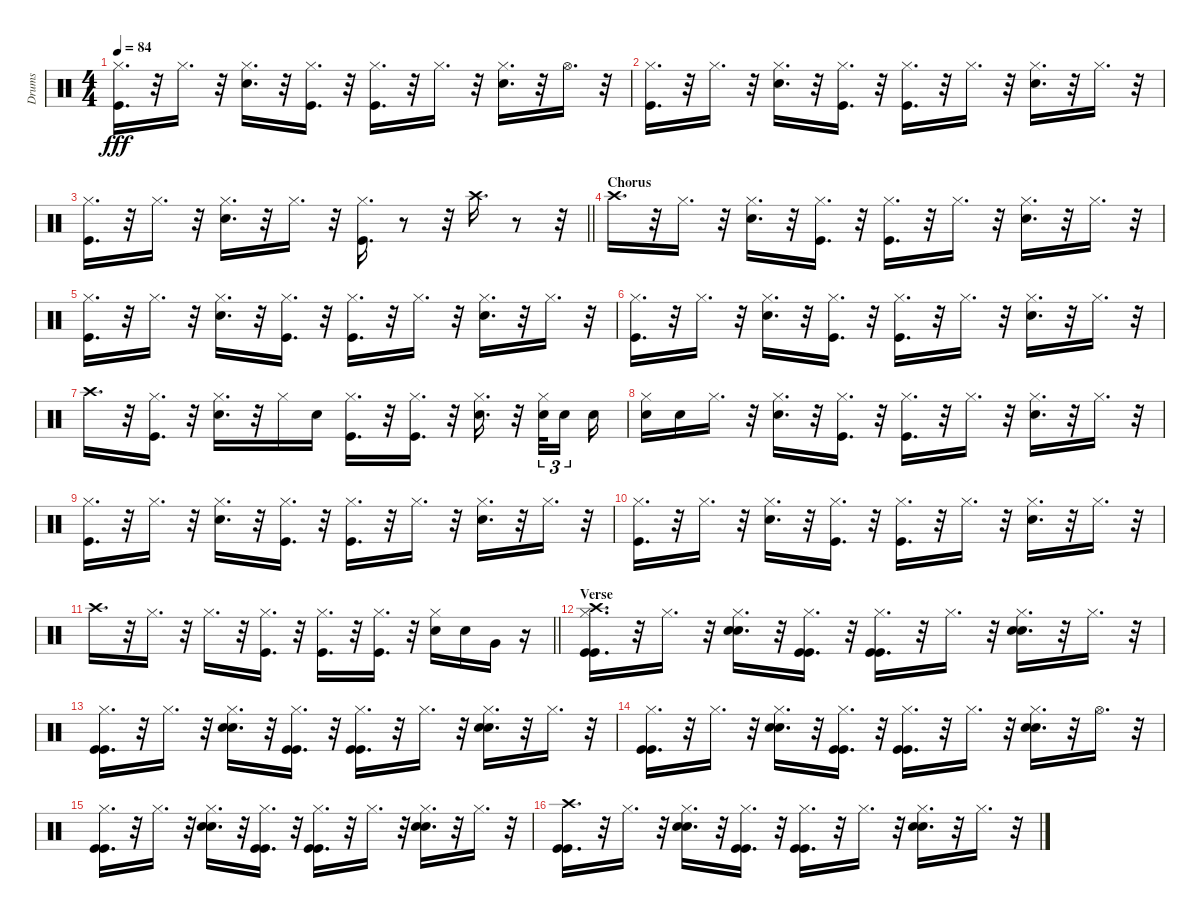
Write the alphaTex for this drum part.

\track ("Drums" "Drums") {instrument percussion}
\staff {score}
\articulation defaults
\ts (4 4)
\tempo 84
\clef neutral
\ks c
("Hi-Hat (closed)" "Kick (hit)").16{d dy fff} r.32 "Hi-Hat (closed)".16{d} r.32 ("Hi-Hat (closed)" "Snare (hit) 2").16{d} r.32 ("Hi-Hat (closed)" "Kick (hit)").16{d} r.32 ("Hi-Hat (closed)" "Kick (hit)").16{d} r.32 "Hi-Hat (closed)".16{d} r.32 ("Hi-Hat (closed)" "Snare (hit) 2").16{d} r.32 "Hi-Hat (open)".16{d} r.32 |
("Kick (hit)" "Hi-Hat (closed)").16{d} r.32 "Hi-Hat (closed)".16{d} r.32 ("Snare (hit) 2" "Hi-Hat (closed)").16{d} r.32 ("Kick (hit)" "Hi-Hat (closed)").16{d} r.32 ("Kick (hit)" "Hi-Hat (closed)").16{d} r.32 "Hi-Hat (closed)".16{d} r.32 ("Snare (hit) 2" "Hi-Hat (closed)").16{d} r.32 "Hi-Hat (closed)".16{d} r.32 |
\barLineRight lightlight
("Hi-Hat (closed)" "Kick (hit)").16{d} r.32 "Hi-Hat (closed)".16{d} r.32 ("Hi-Hat (closed)" "Snare (hit) 2").16{d} r.32 "Hi-Hat (closed)".16{d} r.32 ("Hi-Hat (closed)" "Kick (hit)").16{d} r.8 r.32 "Crash high (hit)".16{d} r.8 r.32 |
\section ("" "Chorus")
"Crash high (hit)".16{d} r.32 "Hi-Hat (closed)".16{d} r.32 ("Hi-Hat (closed)" "Snare (hit) 2").16{d} r.32 ("Hi-Hat (closed)" "Kick (hit)").16{d} r.32 ("Hi-Hat (closed)" "Kick (hit)").16{d} r.32 "Hi-Hat (closed)".16{d} r.32 ("Hi-Hat (closed)" "Snare (hit) 2").16{d} r.32 "Hi-Hat (closed)".16{d} r.32 |
("Kick (hit)" "Hi-Hat (closed)").16{d} r.32 "Hi-Hat (closed)".16{d} r.32 ("Snare (hit) 2" "Hi-Hat (closed)").16{d} r.32 ("Hi-Hat (closed)" "Kick (hit)").16{d} r.32 ("Kick (hit)" "Hi-Hat (closed)").16{d} r.32 "Hi-Hat (closed)".16{d} r.32 ("Hi-Hat (closed)" "Snare (hit) 2").16{d} r.32 "Hi-Hat (closed)".16{d} r.32 |
("Kick (hit)" "Hi-Hat (closed)").16{d} r.32 "Hi-Hat (closed)".16{d} r.32 ("Snare (hit) 2" "Hi-Hat (closed)").16{d} r.32 ("Hi-Hat (closed)" "Kick (hit)").16{d} r.32 ("Kick (hit)" "Hi-Hat (closed)").16{d} r.32 "Hi-Hat (closed)".16{d} r.32 ("Hi-Hat (closed)" "Snare (hit) 2").16{d} r.32 "Hi-Hat (closed)".16{d} r.32 |
"Crash high (hit)".16{d} r.32 ("Kick (hit)" "Hi-Hat (closed)").16{d} r.32 ("Snare (hit) 2" "Hi-Hat (closed)").16{d} r.32 "Hi-Hat (closed)".16 "Snare (hit) 2".16 ("Hi-Hat (closed)" "Kick (hit)").16{d} r.32 ("Hi-Hat (closed)" "Kick (hit)").16{d} r.32 ("Hi-Hat (closed)" "Snare (hit) 2").16{d} r.32 ("Snare (hit) 2" "Hi-Hat (closed)").32{tu (3 2)} "Snare (hit) 2".16{tu (3 2) beam splitsecondary} "Snare (hit) 2".16 |
("Snare (hit) 2" "Hi-Hat (closed)").16 "Snare (hit) 2".16 "Hi-Hat (closed)".16{d} r.32 ("Snare (hit) 2" "Hi-Hat (closed)").16{d} r.32 ("Kick (hit)" "Hi-Hat (closed)").16{d} r.32 ("Kick (hit)" "Hi-Hat (closed)").16{d} r.32 "Hi-Hat (closed)".16{d} r.32 ("Snare (hit) 2" "Hi-Hat (closed)").16{d} r.32 "Hi-Hat (closed)".16{d} r.32 |
("Kick (hit)" "Hi-Hat (closed)").16{d} r.32 "Hi-Hat (closed)".16{d} r.32 ("Snare (hit) 2" "Hi-Hat (closed)").16{d} r.32 ("Kick (hit)" "Hi-Hat (closed)").16{d} r.32 ("Kick (hit)" "Hi-Hat (closed)").16{d} r.32 "Hi-Hat (closed)".16{d} r.32 ("Snare (hit) 2" "Hi-Hat (closed)").16{d} r.32 "Hi-Hat (closed)".16{d} r.32 |
("Kick (hit)" "Hi-Hat (closed)").16{d} r.32 "Hi-Hat (closed)".16{d} r.32 ("Snare (hit) 2" "Hi-Hat (closed)").16{d} r.32 ("Kick (hit)" "Hi-Hat (closed)").16{d} r.32 ("Kick (hit)" "Hi-Hat (closed)").16{d} r.32 "Hi-Hat (closed)".16{d} r.32 ("Snare (hit) 2" "Hi-Hat (closed)").16{d} r.32 "Hi-Hat (closed)".16{d} r.32 |
\barLineRight lightlight "Crash high (hit)".16{d}
r.32 "Hi-Hat (closed)".16{d} r.32 "Hi-Hat (closed)".16{d} r.32 ("Kick (hit)" "Hi-Hat (closed)").16{d} r.32 ("Kick (hit)" "Hi-Hat (closed)").16{d} r.32 ("Kick (hit)" "Hi-Hat (closed)").16{d} r.32 ("Snare (hit) 2" "Hi-Hat (closed)").16 "Snare (hit) 2".16 "Very Low Tom (hit)".16 r.16 |
\section ("" "Verse")
("Crash high (hit)" "Kick (hit)" "Kick (hit)" "Hi-Hat (closed)").16{d} r.32 "Hi-Hat (closed)".16{d} r.32 ("Snare (hit) 2" "Snare (hit) 2" "Hi-Hat (closed)").16{d} r.32 ("Kick (hit)" "Kick (hit)" "Hi-Hat (closed)").16{d} r.32 ("Kick (hit)" "Kick (hit)" "Hi-Hat (closed)").16{d} r.32 "Hi-Hat (closed)".16{d} r.32 ("Snare (hit) 2" "Snare (hit) 2" "Hi-Hat (closed)").16{d} r.32 "Hi-Hat (closed)".16{d} r.32 |
("Kick (hit)" "Kick (hit)" "Hi-Hat (closed)").16{d} r.32 "Hi-Hat (closed)".16{d} r.32 ("Snare (hit) 2" "Snare (hit) 2" "Hi-Hat (closed)").16{d} r.32 ("Kick (hit)" "Kick (hit)" "Hi-Hat (closed)").16{d} r.32 ("Kick (hit)" "Kick (hit)" "Hi-Hat (closed)").16{d} r.32 "Hi-Hat (closed)".16{d} r.32 ("Snare (hit) 2" "Snare (hit) 2" "Hi-Hat (closed)").16{d} r.32 "Hi-Hat (closed)".16{d} r.32 |
("Kick (hit)" "Kick (hit)" "Hi-Hat (closed)").16{d} r.32 "Hi-Hat (closed)".16{d} r.32 ("Snare (hit) 2" "Snare (hit) 2" "Hi-Hat (closed)").16{d} r.32 ("Kick (hit)" "Kick (hit)" "Hi-Hat (closed)").16{d} r.32 ("Kick (hit)" "Kick (hit)" "Hi-Hat (closed)").16{d} r.32 "Hi-Hat (closed)".16{d} r.32 ("Snare (hit) 2" "Snare (hit) 2" "Hi-Hat (closed)").16{d} r.32 "Hi-Hat (open)".16{d} r.32 |
("Kick (hit)" "Kick (hit)" "Hi-Hat (closed)").16{d} r.32 "Hi-Hat (closed)".16{d} r.32 ("Snare (hit) 2" "Snare (hit) 2" "Hi-Hat (closed)").16{d} r.32 ("Kick (hit)" "Kick (hit)" "Hi-Hat (closed)").16{d} r.32 ("Kick (hit)" "Kick (hit)" "Hi-Hat (closed)").16{d} r.32 "Hi-Hat (closed)".16{d} r.32 ("Snare (hit) 2" "Snare (hit) 2" "Hi-Hat (closed)").16{d} r.32 "Hi-Hat (closed)".16{d} r.32 |
("Kick (hit)" "Kick (hit)" "Crash high (hit)").16{d} r.32 "Hi-Hat (closed)".16{d} r.32 ("Snare (hit) 2" "Snare (hit) 2" "Hi-Hat (closed)").16{d} r.32 ("Kick (hit)" "Kick (hit)" "Hi-Hat (closed)").16{d} r.32 ("Kick (hit)" "Kick (hit)" "Hi-Hat (closed)").16{d} r.32 "Hi-Hat (closed)".16{d} r.32 ("Snare (hit) 2" "Snare (hit) 2" "Hi-Hat (closed)").16{d} r.32 "Hi-Hat (closed)".16{d} r.32
